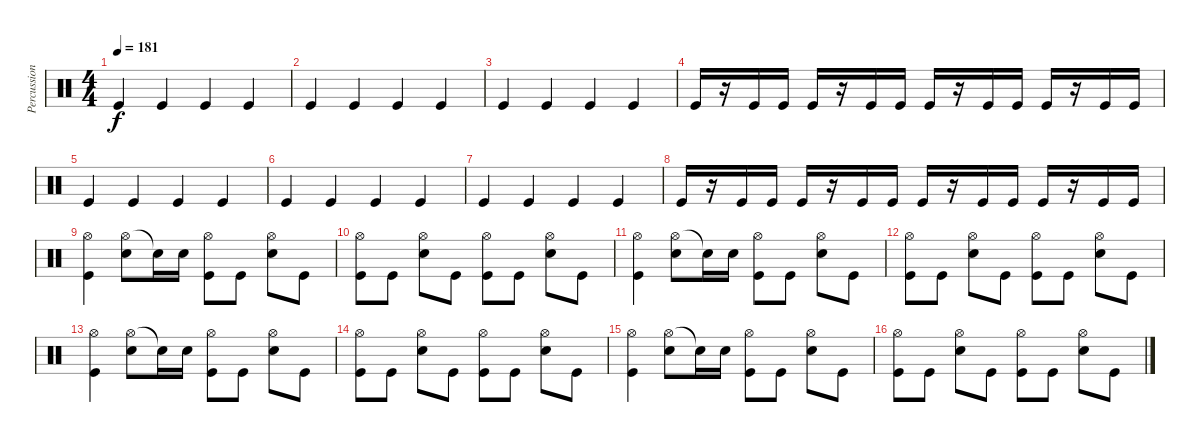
\track ("Percussion" "Percussion") {instrument percussion}
\staff {score}
\articulation defaults
\ts (4 4)
\tempo 181
\clef neutral
\ks c "Kick (hit)".4{dy f} "Kick (hit)".4 "Kick (hit)".4 "Kick (hit)".4
|
"Kick (hit)".4 "Kick (hit)".4 "Kick (hit)".4 "Kick (hit)".4 |
"Kick (hit)".4 "Kick (hit)".4 "Kick (hit)".4 "Kick (hit)".4 |
"Kick (hit)".16 r.16 "Kick (hit)".16 "Kick (hit)".16 "Kick (hit)".16 r.16 "Kick (hit)".16 "Kick (hit)".16 "Kick (hit)".16 r.16 "Kick (hit)".16 "Kick (hit)".16 "Kick (hit)".16 r.16 "Kick (hit)".16 "Kick (hit)".16 |
"Kick (hit)".4 "Kick (hit)".4 "Kick (hit)".4 "Kick (hit)".4 |
"Kick (hit)".4 "Kick (hit)".4 "Kick (hit)".4 "Kick (hit)".4 |
"Kick (hit)".4 "Kick (hit)".4 "Kick (hit)".4 "Kick (hit)".4 |
"Kick (hit)".16 r.16 "Kick (hit)".16 "Kick (hit)".16 "Kick (hit)".16 r.16 "Kick (hit)".16 "Kick (hit)".16 "Kick (hit)".16 r.16 "Kick (hit)".16 "Kick (hit)".16 "Kick (hit)".16 r.16 "Kick (hit)".16 "Kick (hit)".16 |
("Hi-Hat (open)" "Kick (hit)").4 ("Hi-Hat (open)" "Electric Snare (hit)").8 "Electric Snare (hit)"{t}.16 "Electric Snare (hit)".16 ("Hi-Hat (open)" "Kick (hit)").8 "Kick (hit)".8 ("Hi-Hat (open)" "Electric Snare (hit)").8 "Kick (hit)".8 |
("Hi-Hat (open)" "Kick (hit)").8 "Kick (hit)".8 ("Hi-Hat (open)" "Electric Snare (hit)").8 "Kick (hit)".8 ("Hi-Hat (open)" "Kick (hit)").8 "Kick (hit)".8 ("Hi-Hat (open)" "Electric Snare (hit)").8 "Kick (hit)".8 |
("Hi-Hat (open)" "Kick (hit)").4 ("Hi-Hat (open)" "Electric Snare (hit)").8 "Electric Snare (hit)"{t}.16 "Electric Snare (hit)".16 ("Hi-Hat (open)" "Kick (hit)").8 "Kick (hit)".8 ("Hi-Hat (open)" "Electric Snare (hit)").8 "Kick (hit)".8 |
("Hi-Hat (open)" "Kick (hit)").8 "Kick (hit)".8 ("Hi-Hat (open)" "Electric Snare (hit)").8 "Kick (hit)".8 ("Hi-Hat (open)" "Kick (hit)").8 "Kick (hit)".8 ("Hi-Hat (open)" "Electric Snare (hit)").8 "Kick (hit)".8 |
("Hi-Hat (open)" "Kick (hit)").4 ("Hi-Hat (open)" "Electric Snare (hit)").8 "Electric Snare (hit)"{t}.16 "Electric Snare (hit)".16 ("Hi-Hat (open)" "Kick (hit)").8 "Kick (hit)".8 ("Hi-Hat (open)" "Electric Snare (hit)").8 "Kick (hit)".8 |
("Hi-Hat (open)" "Kick (hit)").8 "Kick (hit)".8 ("Hi-Hat (open)" "Electric Snare (hit)").8 "Kick (hit)".8 ("Hi-Hat (open)" "Kick (hit)").8 "Kick (hit)".8 ("Hi-Hat (open)" "Electric Snare (hit)").8 "Kick (hit)".8 |
("Hi-Hat (open)" "Kick (hit)").4 ("Hi-Hat (open)" "Electric Snare (hit)").8 "Electric Snare (hit)"{t}.16 "Electric Snare (hit)".16 ("Hi-Hat (open)" "Kick (hit)").8 "Kick (hit)".8 ("Hi-Hat (open)" "Electric Snare (hit)").8 "Kick (hit)".8 |
("Hi-Hat (open)" "Kick (hit)").8 "Kick (hit)".8 ("Hi-Hat (open)" "Electric Snare (hit)").8 "Kick (hit)".8 ("Hi-Hat (open)" "Kick (hit)").8 "Kick (hit)".8 ("Hi-Hat (open)" "Electric Snare (hit)").8 "Kick (hit)".8
